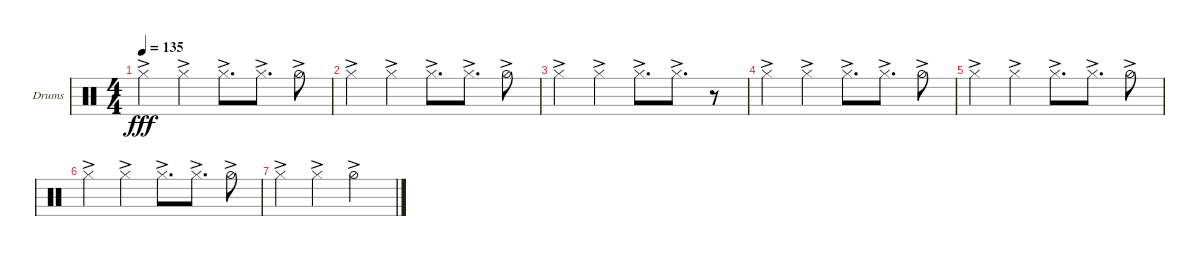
\defaultSystemsLayout 4
\bracketExtendMode groupsimilarinstruments
\firstSystemTrackNameOrientation horizontal
\otherSystemsTrackNameOrientation horizontal
\track ("Helders" "Drums") {instrument percussion}
\staff {score}
\articulation defaults
\ts (4 4)
\tempo 135
\clef neutral
\ks c "Hi-Hat (closed)"{ac}.4{dy fff} "Hi-Hat (closed)"{ac}.4 "Hi-Hat (closed)"{ac}.8{d} "Hi-Hat (closed)"{ac}.8{d} "Hi-Hat (half)"{ac}.8
|
"Hi-Hat (closed)"{ac}.4 "Hi-Hat (closed)"{ac}.4 "Hi-Hat (closed)"{ac}.8{d} "Hi-Hat (closed)"{ac}.8{d} "Hi-Hat (half)"{ac}.8 |
"Hi-Hat (closed)"{ac}.4 "Hi-Hat (closed)"{ac}.4 "Hi-Hat (closed)"{ac}.8{d} "Hi-Hat (closed)"{ac}.8{d} r.8 |
"Hi-Hat (closed)"{ac}.4 "Hi-Hat (closed)"{ac}.4 "Hi-Hat (closed)"{ac}.8{d} "Hi-Hat (closed)"{ac}.8{d} "Hi-Hat (half)"{ac}.8 |
"Hi-Hat (closed)"{ac}.4 "Hi-Hat (closed)"{ac}.4 "Hi-Hat (closed)"{ac}.8{d} "Hi-Hat (closed)"{ac}.8{d} "Hi-Hat (half)"{ac}.8 |
"Hi-Hat (closed)"{ac}.4 "Hi-Hat (closed)"{ac}.4 "Hi-Hat (closed)"{ac}.8{d} "Hi-Hat (closed)"{ac}.8{d} "Hi-Hat (half)"{ac}.8 |
"Hi-Hat (closed)"{ac}.4 "Hi-Hat (closed)"{ac}.4 "Hi-Hat (half)"{ac}.2
